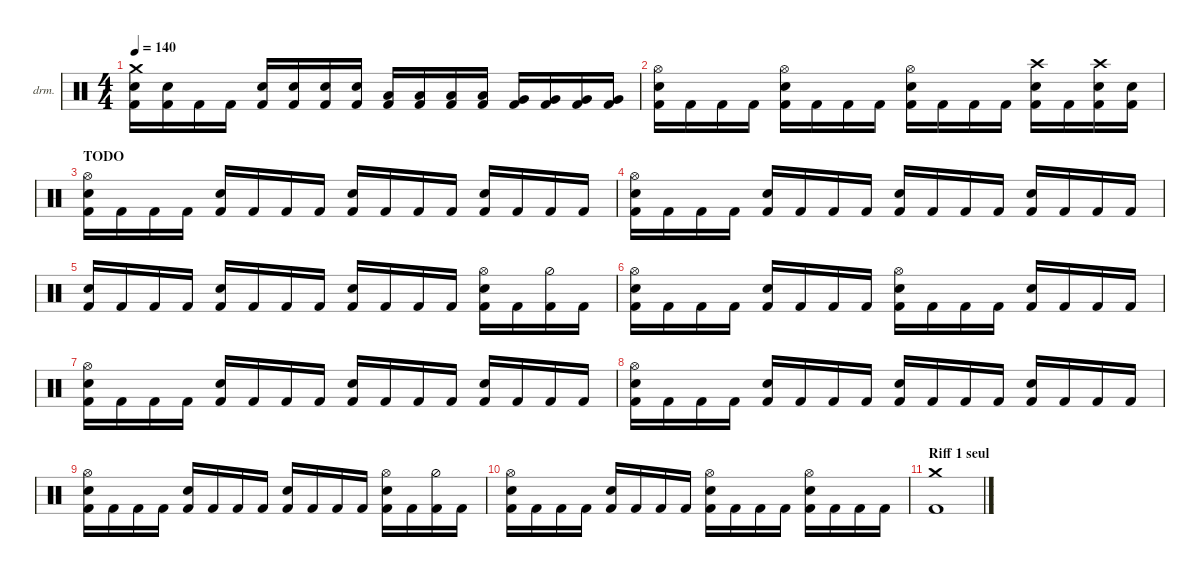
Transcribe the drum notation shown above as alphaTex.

\defaultSystemsLayout 4
\hideDynamics
\bracketExtendMode nobrackets
\firstSystemTrackNameOrientation horizontal
\otherSystemsTrackNameOrientation horizontal
\track ("Drumkit" "drm.") {instrument percussion}
\staff {score}
\articulation defaults
\ts (4 4)
\tempo 140
\clef neutral
\ks c
("Crash medium (hit)" "Snare (hit) 2" "Kick (hit) 2").16{dy mf} ("Snare (hit) 2" "Kick (hit) 2").16 "Kick (hit) 2".16 "Kick (hit) 2".16 ("Snare (hit) 2" "Kick (hit) 2").16 ("Snare (hit) 2" "Kick (hit) 2").16 ("Snare (hit) 2" "Kick (hit) 2").16 ("Snare (hit) 2" "Kick (hit) 2").16 ("Low Tom (hit)" "Kick (hit) 2").16 ("Low Tom (hit)" "Kick (hit) 2").16 ("Low Tom (hit)" "Kick (hit) 2").16 ("Low Tom (hit)" "Kick (hit) 2").16 ("Very Low Tom (hit)" "Kick (hit) 2").16 ("Very Low Tom (hit)" "Kick (hit) 2").16 ("Very Low Tom (hit)" "Kick (hit) 2").16 ("Very Low Tom (hit)" "Kick (hit) 2").16 |
("Hi-Hat (open)" "Snare (hit) 2" "Kick (hit) 2").16 "Kick (hit) 2".16 "Kick (hit) 2".16 "Kick (hit) 2".16 ("Hi-Hat (open)" "Snare (hit) 2" "Kick (hit) 2").16 "Kick (hit) 2".16 "Kick (hit) 2".16 "Kick (hit) 2".16 ("Hi-Hat (open)" "Snare (hit) 2" "Kick (hit) 2").16 "Kick (hit) 2".16 "Kick (hit) 2".16 "Kick (hit) 2".16 ("Crash high (hit)" "Snare (hit) 2" "Kick (hit) 2").16 "Kick (hit) 2".16 ("Crash high (hit)" "Snare (hit) 2" "Kick (hit) 2").16 ("Snare (hit) 2" "Kick (hit) 2").16 |
\section ("" "TODO")
("Snare (hit) 2" "Kick (hit) 2" "Hi-Hat (open)").16{dy ff} "Kick (hit) 2".16 "Kick (hit) 2".16 "Kick (hit) 2".16 ("Snare (hit) 2" "Kick (hit) 2").16 "Kick (hit) 2".16 "Kick (hit) 2".16 "Kick (hit) 2".16 ("Snare (hit) 2" "Kick (hit) 2").16 "Kick (hit) 2".16 "Kick (hit) 2".16 "Kick (hit) 2".16 ("Snare (hit) 2" "Kick (hit) 2").16 "Kick (hit) 2".16 "Kick (hit) 2".16 "Kick (hit) 2".16 |
("Snare (hit) 2" "Kick (hit) 2" "Hi-Hat (open)").16 "Kick (hit) 2".16 "Kick (hit) 2".16 "Kick (hit) 2".16 ("Snare (hit) 2" "Kick (hit) 2").16 "Kick (hit) 2".16 "Kick (hit) 2".16 "Kick (hit) 2".16 ("Snare (hit) 2" "Kick (hit) 2").16 "Kick (hit) 2".16 "Kick (hit) 2".16 "Kick (hit) 2".16 ("Snare (hit) 2" "Kick (hit) 2").16 "Kick (hit) 2".16 "Kick (hit) 2".16 "Kick (hit) 2".16 |
("Snare (hit) 2" "Kick (hit) 2").16 "Kick (hit) 2".16 "Kick (hit) 2".16 "Kick (hit) 2".16 ("Snare (hit) 2" "Kick (hit) 2").16 "Kick (hit) 2".16 "Kick (hit) 2".16 "Kick (hit) 2".16 ("Snare (hit) 2" "Kick (hit) 2").16 "Kick (hit) 2".16 "Kick (hit) 2".16 "Kick (hit) 2".16 ("Hi-Hat (open)" "Snare (hit) 2" "Kick (hit) 2").16 "Kick (hit) 2".16 ("Kick (hit) 2" "Hi-Hat (half)").16 "Kick (hit) 2".16 |
("Hi-Hat (open)" "Snare (hit) 2" "Kick (hit) 2").16 "Kick (hit) 2".16 "Kick (hit) 2".16 "Kick (hit) 2".16 ("Snare (hit) 2" "Kick (hit) 2").16 "Kick (hit) 2".16 "Kick (hit) 2".16 "Kick (hit) 2".16 ("Hi-Hat (open)" "Snare (hit) 2" "Kick (hit) 2").16 "Kick (hit) 2".16 "Kick (hit) 2".16 "Kick (hit) 2".16 ("Snare (hit) 2" "Kick (hit) 2").16 "Kick (hit) 2".16 "Kick (hit) 2".16 "Kick (hit) 2".16 |
("Snare (hit) 2" "Kick (hit) 2" "Hi-Hat (open)").16 "Kick (hit) 2".16 "Kick (hit) 2".16 "Kick (hit) 2".16 ("Snare (hit) 2" "Kick (hit) 2").16 "Kick (hit) 2".16 "Kick (hit) 2".16 "Kick (hit) 2".16 ("Snare (hit) 2" "Kick (hit) 2").16 "Kick (hit) 2".16 "Kick (hit) 2".16 "Kick (hit) 2".16 ("Snare (hit) 2" "Kick (hit) 2").16 "Kick (hit) 2".16 "Kick (hit) 2".16 "Kick (hit) 2".16 |
("Hi-Hat (open)" "Snare (hit) 2" "Kick (hit) 2").16 "Kick (hit) 2".16 "Kick (hit) 2".16 "Kick (hit) 2".16 ("Snare (hit) 2" "Kick (hit) 2").16 "Kick (hit) 2".16 "Kick (hit) 2".16 "Kick (hit) 2".16 ("Snare (hit) 2" "Kick (hit) 2").16 "Kick (hit) 2".16 "Kick (hit) 2".16 "Kick (hit) 2".16 ("Snare (hit) 2" "Kick (hit) 2").16 "Kick (hit) 2".16 "Kick (hit) 2".16 "Kick (hit) 2".16 |
("Hi-Hat (open)" "Snare (hit) 2" "Kick (hit) 2").16 "Kick (hit) 2".16 "Kick (hit) 2".16 "Kick (hit) 2".16 ("Snare (hit) 2" "Kick (hit) 2").16 "Kick (hit) 2".16 "Kick (hit) 2".16 "Kick (hit) 2".16 ("Snare (hit) 2" "Kick (hit) 2").16 "Kick (hit) 2".16 "Kick (hit) 2".16 "Kick (hit) 2".16 ("Hi-Hat (open)" "Snare (hit) 2" "Kick (hit) 2").16 "Kick (hit) 2".16 ("Kick (hit) 2" "Hi-Hat (half)").16 "Kick (hit) 2".16 |
("Hi-Hat (open)" "Snare (hit) 2" "Kick (hit) 2").16 "Kick (hit) 2".16 "Kick (hit) 2".16 "Kick (hit) 2".16 ("Snare (hit) 2" "Kick (hit) 2").16 "Kick (hit) 2".16 "Kick (hit) 2".16 "Kick (hit) 2".16 ("Hi-Hat (open)" "Snare (hit) 2" "Kick (hit) 2").16 "Kick (hit) 2".16 "Kick (hit) 2".16 "Kick (hit) 2".16 ("Hi-Hat (open)" "Snare (hit) 2" "Kick (hit) 2").16 "Kick (hit) 2".16 "Kick (hit) 2".16 "Kick (hit) 2".16 |
\section ("" "Riff 1 seul")
("Kick (hit) 2" "Crash medium (hit)").1
